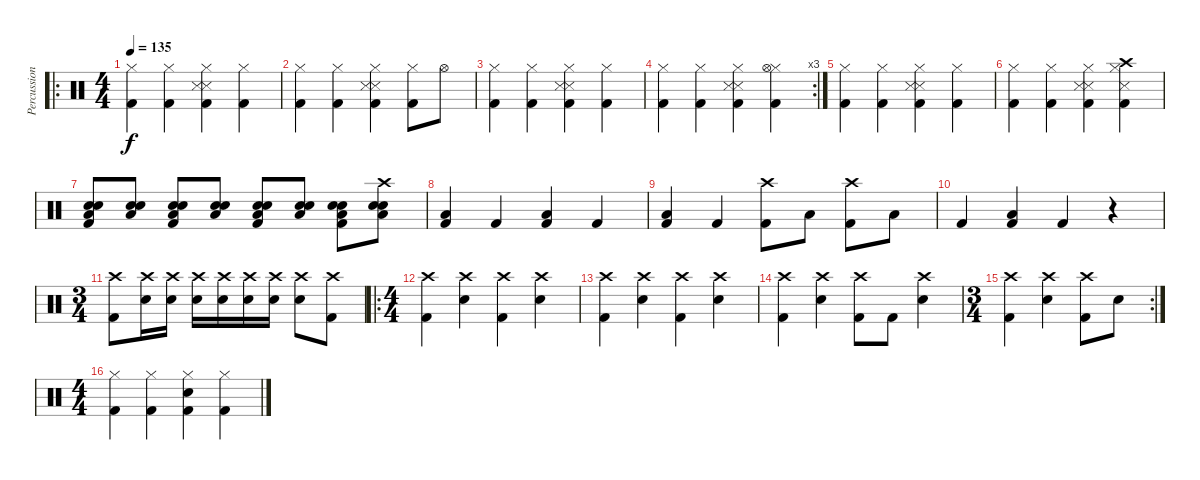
\track ("Percussions" "Percussion") {instrument percussion}
\staff {score}
\articulation defaults
\ro
\ts (4 4)
\tempo 135
\clef neutral
\ks c
("Hi-Hat (closed)" "Kick (hit) 2").4{dy f} ("Hi-Hat (closed)" "Kick (hit) 2").4 ("Hi-Hat (closed)" "Snare (side stick) 3" "Snare (side stick) 3" "Kick (hit) 2").4 ("Hi-Hat (closed)" "Kick (hit) 2").4 |
("Hi-Hat (closed)" "Kick (hit) 2").4 ("Hi-Hat (closed)" "Kick (hit) 2").4 ("Hi-Hat (closed)" "Snare (side stick) 3" "Snare (side stick) 3" "Kick (hit) 2").4 ("Hi-Hat (closed)" "Kick (hit) 2").8 "Hi-Hat (open)".8 |
("Hi-Hat (closed)" "Kick (hit) 2").4 ("Hi-Hat (closed)" "Kick (hit) 2").4 ("Hi-Hat (closed)" "Snare (side stick) 3" "Snare (side stick) 3" "Kick (hit) 2").4 ("Hi-Hat (closed)" "Kick (hit) 2").4 |
\rc 3
("Hi-Hat (closed)" "Kick (hit) 2").4 ("Hi-Hat (closed)" "Kick (hit) 2").4 ("Hi-Hat (closed)" "Snare (side stick) 3" "Snare (side stick) 3" "Kick (hit) 2").4 ("Hi-Hat (closed)" "Hi-Hat (open)" "Kick (hit) 2").4 |
("Hi-Hat (closed)" "Kick (hit) 2").4 ("Hi-Hat (closed)" "Kick (hit) 2").4 ("Hi-Hat (closed)" "Snare (side stick) 3" "Snare (side stick) 3" "Kick (hit) 2").4 ("Hi-Hat (closed)" "Kick (hit) 2").4 |
("Hi-Hat (closed)" "Kick (hit) 2").4 ("Hi-Hat (closed)" "Kick (hit) 2").4 ("Hi-Hat (closed)" "Snare (side stick) 3" "Snare (side stick) 3" "Kick (hit) 2").4 ("Hi-Hat (closed)" "Crash high (hit)" "Snare (side stick) 3" "Kick (hit) 2").4 |
("Low Tom (hit)" "Electric Snare (hit)" "Electric Snare (hit)" "Kick (hit) 2").8{volume 7} ("Low Tom (hit)" "Electric Snare (hit)" "Electric Snare (hit)").8{volume 13} ("Low Tom (hit)" "Electric Snare (hit)" "Electric Snare (hit)" "Kick (hit) 2").8 ("Low Tom (hit)" "Electric Snare (hit)" "Electric Snare (hit)").8 ("Low Tom (hit)" "Electric Snare (hit)" "Electric Snare (hit)" "Kick (hit) 2").8 ("Low Tom (hit)" "Electric Snare (hit)" "Electric Snare (hit)").8 ("Low Tom (hit)" "Electric Snare (hit)" "Electric Snare (hit)" "Kick (hit) 2").8 ("Low Tom (hit)" "Electric Snare (hit)" "Crash high (hit)" "Electric Snare (hit)").8 |
("Low Tom (hit)" "Kick (hit) 2").4 "Kick (hit) 2".4 ("Low Tom (hit)" "Kick (hit) 2").4 "Kick (hit) 2".4 |
("Low Tom (hit)" "Kick (hit) 2").4 "Kick (hit) 2".4 ("Crash high (hit)" "Kick (hit) 2").8 "Low Tom (hit)".8 ("Crash high (hit)" "Kick (hit) 2").8 "Low Tom (hit)".8 |
"Kick (hit) 2".4 ("Low Tom (hit)" "Kick (hit) 2").4 "Kick (hit) 2".4 r.4 |
\ts (3 4)
("Crash high (hit)" "Kick (hit) 2").8 ("Crash high (hit)" "Electric Snare (hit)").16 ("Crash high (hit)" "Electric Snare (hit)").16 ("Crash high (hit)" "Electric Snare (hit)").16 ("Crash high (hit)" "Electric Snare (hit)").16 ("Crash high (hit)" "Electric Snare (hit)").16 ("Crash high (hit)" "Electric Snare (hit)").16 ("Crash high (hit)" "Electric Snare (hit)").8 ("Crash high (hit)" "Kick (hit) 2").8 |
\ro
\ts (4 4)
("Crash high (hit)" "Kick (hit) 2").4 ("Crash high (hit)" "Electric Snare (hit)").4 ("Crash high (hit)" "Kick (hit) 2").4 ("Crash high (hit)" "Electric Snare (hit)").4 |
("Crash high (hit)" "Kick (hit) 2").4 ("Crash high (hit)" "Electric Snare (hit)").4 ("Crash high (hit)" "Kick (hit) 2").4 ("Crash high (hit)" "Electric Snare (hit)").4 |
("Crash high (hit)" "Kick (hit) 2").4 ("Crash high (hit)" "Electric Snare (hit)").4 ("Crash high (hit)" "Kick (hit) 2").8 "Kick (hit) 2".8 ("Crash high (hit)" "Electric Snare (hit)").4 |
\rc 2
\ts (3 4)
("Crash high (hit)" "Kick (hit) 2").4 ("Crash high (hit)" "Electric Snare (hit)").4 ("Crash high (hit)" "Kick (hit) 2").8 "Electric Snare (hit)".8 |
\ts (4 4)
("Hi-Hat (closed)" "Kick (hit) 2").4 ("Hi-Hat (closed)" "Kick (hit) 2").4 ("Hi-Hat (closed)" "Electric Snare (hit)" "Kick (hit) 2").4 ("Hi-Hat (closed)" "Kick (hit) 2").4
